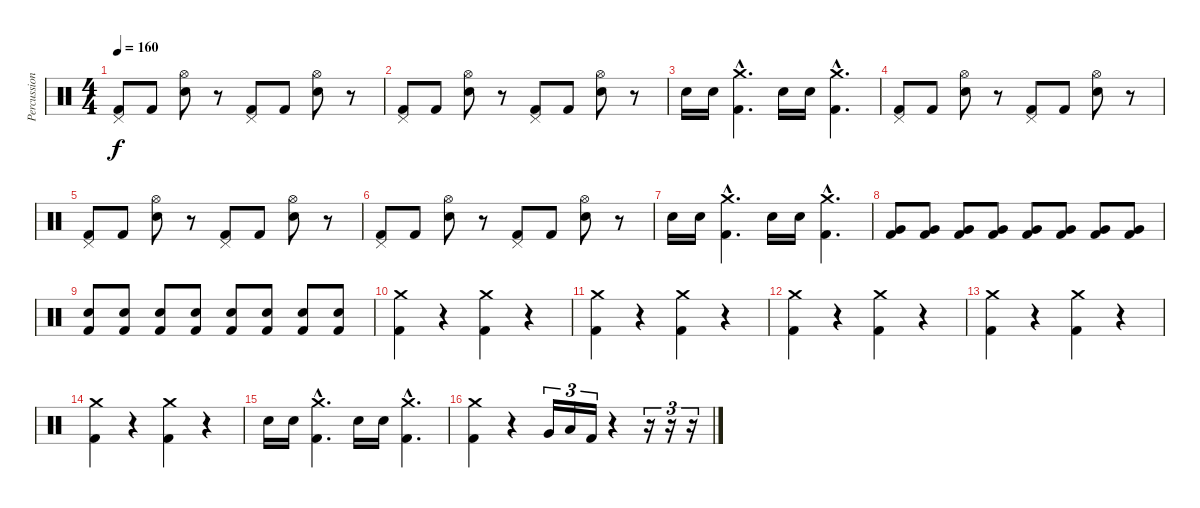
\track ("Percussion" "Percussion") {instrument percussion}
\staff {score}
\articulation defaults
\ts (4 4)
\tempo 160
\clef neutral
\ks c
("Pedal Hi-Hat (hit)" "Kick (hit) 2").8{dy f} "Kick (hit) 2".8 ("Hi-Hat (open)" "Snare (hit) 2").8 r.8 ("Pedal Hi-Hat (hit)" "Kick (hit) 2").8 "Kick (hit) 2".8 ("Hi-Hat (open)" "Snare (hit) 2").8 r.8 |
("Pedal Hi-Hat (hit)" "Kick (hit) 2").8 "Kick (hit) 2".8 ("Hi-Hat (open)" "Snare (hit) 2").8 r.8 ("Pedal Hi-Hat (hit)" "Kick (hit) 2").8 "Kick (hit) 2".8 ("Hi-Hat (open)" "Snare (hit) 2").8 r.8 |
"Snare (hit) 2".16 "Snare (hit) 2".16 ("Crash medium (hit)"{hac} "Kick (hit) 2"{hac}).4{d} "Snare (hit) 2".16 "Snare (hit) 2".16 ("Crash medium (hit)"{hac} "Kick (hit) 2"{hac}).4{d} |
("Pedal Hi-Hat (hit)" "Kick (hit) 2").8 "Kick (hit) 2".8 ("Hi-Hat (open)" "Snare (hit) 2").8 r.8 ("Pedal Hi-Hat (hit)" "Kick (hit) 2").8 "Kick (hit) 2".8 ("Hi-Hat (open)" "Snare (hit) 2").8 r.8 |
("Pedal Hi-Hat (hit)" "Kick (hit) 2").8 "Kick (hit) 2".8 ("Hi-Hat (open)" "Snare (hit) 2").8 r.8 ("Pedal Hi-Hat (hit)" "Kick (hit) 2").8 "Kick (hit) 2".8 ("Hi-Hat (open)" "Snare (hit) 2").8 r.8 |
("Pedal Hi-Hat (hit)" "Kick (hit) 2").8 "Kick (hit) 2".8 ("Hi-Hat (open)" "Snare (hit) 2").8 r.8 ("Pedal Hi-Hat (hit)" "Kick (hit) 2").8 "Kick (hit) 2".8 ("Hi-Hat (open)" "Snare (hit) 2").8 r.8 |
"Snare (hit) 2".16 "Snare (hit) 2".16 ("Crash medium (hit)"{hac} "Kick (hit) 2"{hac}).4{d} "Snare (hit) 2".16 "Snare (hit) 2".16 ("Crash medium (hit)"{hac} "Kick (hit) 2"{hac}).4{d} |
("Very Low Tom (hit)" "Kick (hit) 2").8 ("Very Low Tom (hit)" "Kick (hit) 2").8 ("Very Low Tom (hit)" "Kick (hit) 2").8 ("Very Low Tom (hit)" "Kick (hit) 2").8 ("Very Low Tom (hit)" "Kick (hit) 2").8 ("Very Low Tom (hit)" "Kick (hit) 2").8 ("Very Low Tom (hit)" "Kick (hit) 2").8 ("Very Low Tom (hit)" "Kick (hit) 2").8 |
("Kick (hit) 2" "Snare (hit) 2").8 ("Kick (hit) 2" "Snare (hit) 2").8 ("Kick (hit) 2" "Snare (hit) 2").8 ("Kick (hit) 2" "Snare (hit) 2").8 ("Kick (hit) 2" "Snare (hit) 2").8 ("Kick (hit) 2" "Snare (hit) 2").8 ("Kick (hit) 2" "Snare (hit) 2").8 ("Kick (hit) 2" "Snare (hit) 2").8 |
("Crash medium (hit)" "Kick (hit) 2").4 r.4 ("Crash medium (hit)" "Kick (hit) 2").4 r.4 |
("Crash medium (hit)" "Kick (hit) 2").4 r.4 ("Crash medium (hit)" "Kick (hit) 2").4 r.4 |
("Crash medium (hit)" "Kick (hit) 2").4 r.4 ("Crash medium (hit)" "Kick (hit) 2").4 r.4 |
("Crash medium (hit)" "Kick (hit) 2").4 r.4 ("Crash medium (hit)" "Kick (hit) 2").4 r.4 |
("Crash medium (hit)" "Kick (hit) 2").4 r.4 ("Crash medium (hit)" "Kick (hit) 2").4 r.4 |
"Snare (hit) 2".16 "Snare (hit) 2".16 ("Crash medium (hit)"{hac} "Kick (hit) 2"{hac}).4{d} "Snare (hit) 2".16 "Snare (hit) 2".16 ("Crash medium (hit)"{hac} "Kick (hit) 2"{hac}).4{d} |
("Crash medium (hit)" "Kick (hit) 2").4 r.4 "Very Low Tom (hit)".16{tu (3 2)} "Low Floor Tom (hit)".16{tu (3 2)} "Kick (hit) 2".16{tu (3 2)} r.4 r.16{tu (3 2)} r.16{tu (3 2)} r.16{tu (3 2)}
